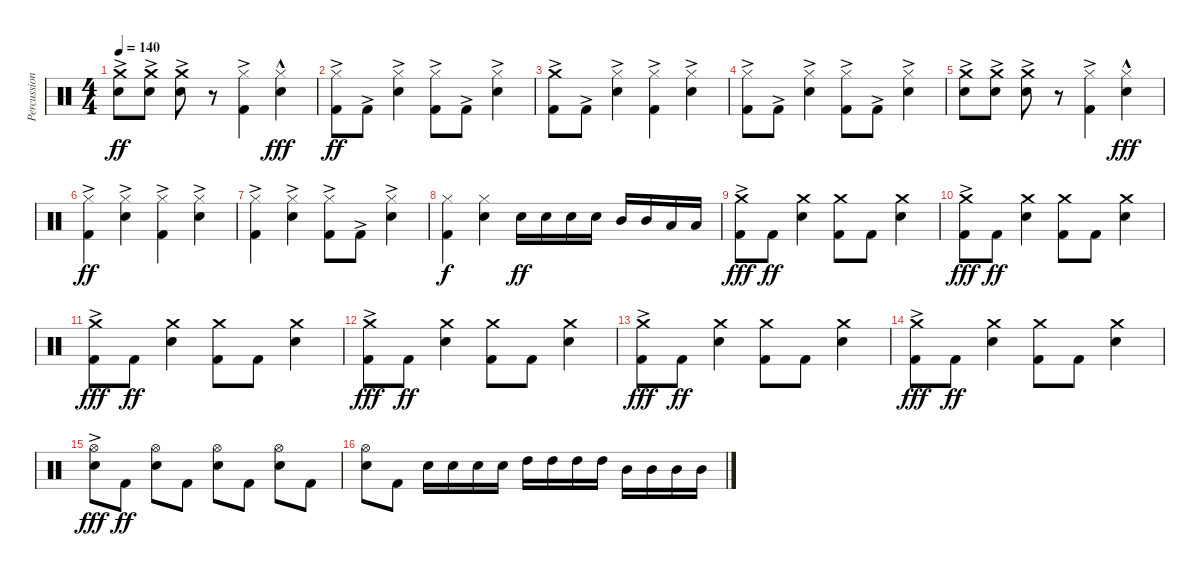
\track ("Percussion" "Percussion") {instrument percussion}
\staff {score}
\articulation defaults
\ts (4 4)
\tempo 140
\clef neutral
\ks c
("Crash medium (hit)" "Snare (hit) 2"{ac}).8{dy ff} ("Crash medium (hit)" "Snare (hit) 2"{ac}).8 ("Crash medium (hit)" "Snare (hit) 2"{ac}).8 r.8 ("Hi-Hat (closed)" "Kick (hit) 2"{ac}).4 ("Hi-Hat (closed)" "Snare (hit) 2"{hac}).4{dy fff} |
("Hi-Hat (closed)" "Kick (hit) 2"{ac}).8{dy ff} "Kick (hit) 2"{ac}.8 ("Hi-Hat (closed)" "Snare (hit) 2"{ac}).4 ("Hi-Hat (closed)" "Kick (hit) 2"{ac}).8 "Kick (hit) 2"{ac}.8 ("Hi-Hat (closed)" "Snare (hit) 2"{ac}).4 |
("Crash medium (hit)" "Kick (hit) 2"{ac}).8 "Kick (hit) 2"{ac}.8 ("Hi-Hat (closed)" "Snare (hit) 2"{ac}).4 ("Hi-Hat (closed)" "Kick (hit) 2"{ac}).4 ("Hi-Hat (closed)" "Snare (hit) 2"{ac}).4 |
("Hi-Hat (closed)" "Kick (hit) 2"{ac}).8 "Kick (hit) 2"{ac}.8 ("Hi-Hat (closed)" "Snare (hit) 2"{ac}).4 ("Hi-Hat (closed)" "Kick (hit) 2"{ac}).8 "Kick (hit) 2"{ac}.8 ("Hi-Hat (closed)" "Snare (hit) 2"{ac}).4 |
("Crash medium (hit)" "Snare (hit) 2"{ac}).8 ("Crash medium (hit)" "Snare (hit) 2"{ac}).8 ("Crash medium (hit)" "Snare (hit) 2"{ac}).8 r.8 ("Hi-Hat (closed)" "Kick (hit) 2"{ac}).4 ("Hi-Hat (closed)" "Snare (hit) 2"{hac}).4{dy fff} |
("Hi-Hat (closed)" "Kick (hit) 2"{ac}).4{dy ff} ("Hi-Hat (closed)" "Snare (hit) 2"{ac}).4 ("Hi-Hat (closed)" "Kick (hit) 2"{ac}).4 ("Hi-Hat (closed)" "Snare (hit) 2"{ac}).4 |
("Hi-Hat (closed)" "Kick (hit) 2"{ac}).4 ("Hi-Hat (closed)" "Snare (hit) 2"{ac}).4 ("Hi-Hat (closed)" "Kick (hit) 2"{ac}).8 "Kick (hit) 2"{ac}.8 ("Hi-Hat (closed)" "Snare (hit) 2"{ac}).4 |
("Hi-Hat (closed)" "Kick (hit) 2").4{dy f} ("Hi-Hat (closed)" "Snare (hit) 2").4 "Snare (hit) 2".16{dy ff} "Snare (hit) 2".16 "Snare (hit) 2".16 "Snare (hit) 2".16 "Mid Tom (hit)".16 "Mid Tom (hit)".16 "Low Tom (hit)".16 "Low Tom (hit)".16 |
("Crash medium (hit)" "Kick (hit) 2"{ac}).8{dy fff} "Kick (hit) 2".8{dy ff} ("Crash medium (hit)" "Snare (hit) 2").4 ("Crash medium (hit)" "Kick (hit) 2").8 "Kick (hit) 2".8 ("Crash medium (hit)" "Snare (hit) 2").4 |
("Crash medium (hit)" "Kick (hit) 2"{ac}).8{dy fff} "Kick (hit) 2".8{dy ff} ("Crash medium (hit)" "Snare (hit) 2").4 ("Crash medium (hit)" "Kick (hit) 2").8 "Kick (hit) 2".8 ("Crash medium (hit)" "Snare (hit) 2").4 |
("Crash medium (hit)" "Kick (hit) 2"{ac}).8{dy fff} "Kick (hit) 2".8{dy ff} ("Crash medium (hit)" "Snare (hit) 2").4 ("Crash medium (hit)" "Kick (hit) 2").8 "Kick (hit) 2".8 ("Crash medium (hit)" "Snare (hit) 2").4 |
("Crash medium (hit)" "Kick (hit) 2"{ac}).8{dy fff} "Kick (hit) 2".8{dy ff} ("Crash medium (hit)" "Snare (hit) 2").4 ("Crash medium (hit)" "Kick (hit) 2").8 "Kick (hit) 2".8 ("Crash medium (hit)" "Snare (hit) 2").4 |
("Crash medium (hit)" "Kick (hit) 2"{ac}).8{dy fff} "Kick (hit) 2".8{dy ff} ("Crash medium (hit)" "Snare (hit) 2").4 ("Crash medium (hit)" "Kick (hit) 2").8 "Kick (hit) 2".8 ("Crash medium (hit)" "Snare (hit) 2").4 |
("Crash medium (hit)" "Kick (hit) 2"{ac}).8{dy fff} "Kick (hit) 2".8{dy ff} ("Crash medium (hit)" "Snare (hit) 2").4 ("Crash medium (hit)" "Kick (hit) 2").8 "Kick (hit) 2".8 ("Crash medium (hit)" "Snare (hit) 2").4 |
("Hi-Hat (open)" "Snare (hit) 2"{ac}).8{dy fff} "Kick (hit) 2".8{dy ff} ("Hi-Hat (open)" "Snare (hit) 2").8 "Kick (hit) 2".8 ("Hi-Hat (open)" "Snare (hit) 2").8 "Kick (hit) 2".8 ("Hi-Hat (open)" "Snare (hit) 2").8 "Kick (hit) 2".8 |
("Hi-Hat (open)" "Snare (hit) 2").8 "Kick (hit) 2".8 "Snare (hit) 2".16 "Snare (hit) 2".16 "Snare (hit) 2".16 "Snare (hit) 2".16 "High Tom (hit)".16 "High Tom (hit)".16 "High Tom (hit)".16 "High Tom (hit)".16 "Mid Tom (hit)".16 "Mid Tom (hit)".16 "Mid Tom (hit)".16 "Mid Tom (hit)".16
